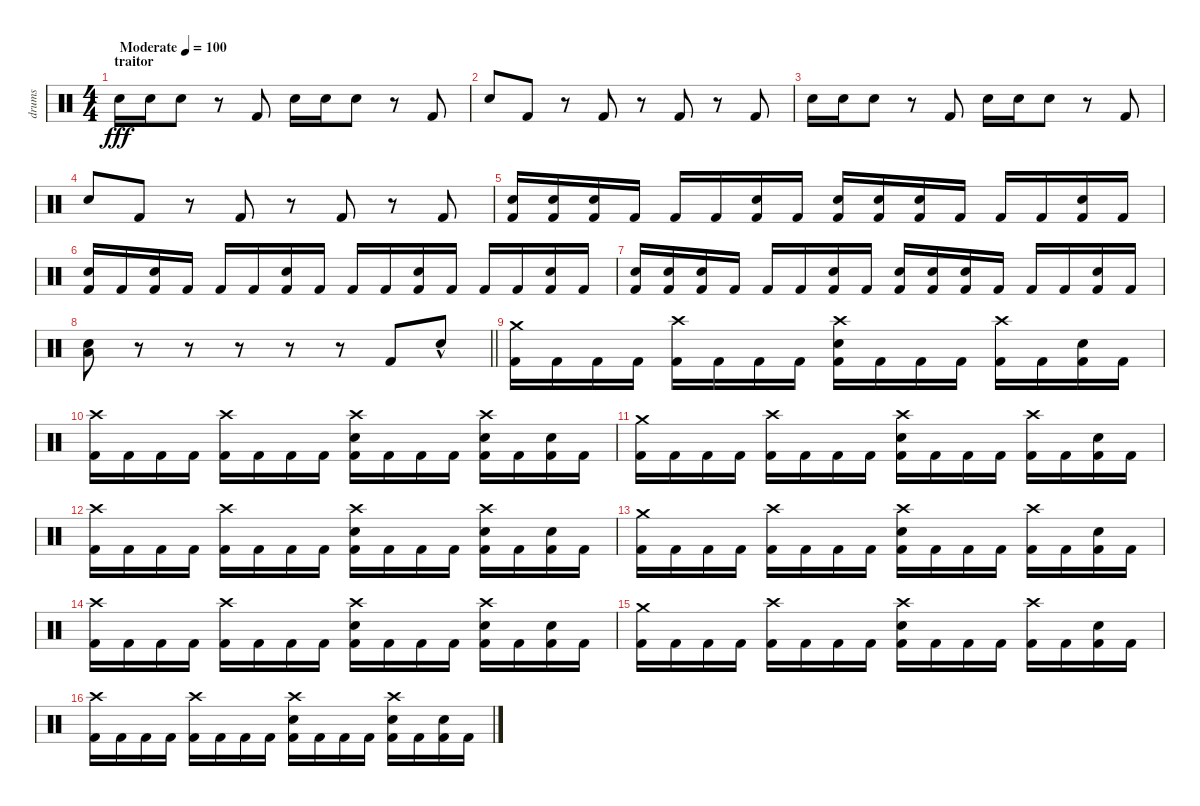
\track ("drums" "drums") {instrument percussion}
\staff {score}
\articulation defaults
\ts (4 4)
\section ("" "traitor")
\tempo (100 "Moderate")
\tempo 180
\tempo (100 "Moderate")
\clef neutral
\ks c "Electric Snare (hit)".16{dy fff} "Electric Snare (hit)".16 "Electric Snare (hit)".8
r.8 "Kick (hit) 2".8 "Electric Snare (hit)".16 "Electric Snare (hit)".16 "Electric Snare (hit)".8 r.8 "Kick (hit) 2".8 |
"Electric Snare (hit)".8 "Kick (hit) 2".8 r.8 "Kick (hit) 2".8 r.8 "Kick (hit) 2".8 r.8 "Kick (hit) 2".8 |
"Electric Snare (hit)".16 "Electric Snare (hit)".16 "Electric Snare (hit)".8 r.8 "Kick (hit) 2".8 "Electric Snare (hit)".16 "Electric Snare (hit)".16 "Electric Snare (hit)".8 r.8 "Kick (hit) 2".8 |
"Electric Snare (hit)".8 "Kick (hit) 2".8 r.8 "Kick (hit) 2".8 r.8 "Kick (hit) 2".8 r.8 "Kick (hit) 2".8 |
("Electric Snare (hit)" "Kick (hit) 2").16 ("Electric Snare (hit)" "Kick (hit) 2").16 ("Electric Snare (hit)" "Kick (hit) 2").16 "Kick (hit) 2".16 "Kick (hit) 2".16 "Kick (hit) 2".16 ("Electric Snare (hit)" "Kick (hit) 2").16 "Kick (hit) 2".16 ("Electric Snare (hit)" "Kick (hit) 2").16 ("Electric Snare (hit)" "Kick (hit) 2").16 ("Electric Snare (hit)" "Kick (hit) 2").16 "Kick (hit) 2".16 "Kick (hit) 2".16 "Kick (hit) 2".16 ("Electric Snare (hit)" "Kick (hit) 2").16 "Kick (hit) 2".16 |
("Electric Snare (hit)" "Kick (hit) 2").16 "Kick (hit) 2".16 ("Electric Snare (hit)" "Kick (hit) 2").16 "Kick (hit) 2".16 "Kick (hit) 2".16 "Kick (hit) 2".16 ("Electric Snare (hit)" "Kick (hit) 2").16 "Kick (hit) 2".16 "Kick (hit) 2".16 "Kick (hit) 2".16 ("Electric Snare (hit)" "Kick (hit) 2").16 "Kick (hit) 2".16 "Kick (hit) 2".16 "Kick (hit) 2".16 ("Electric Snare (hit)" "Kick (hit) 2").16 "Kick (hit) 2".16 |
("Electric Snare (hit)" "Kick (hit) 2").16 ("Electric Snare (hit)" "Kick (hit) 2").16 ("Electric Snare (hit)" "Kick (hit) 2").16 "Kick (hit) 2".16 "Kick (hit) 2".16 "Kick (hit) 2".16 ("Electric Snare (hit)" "Kick (hit) 2").16 "Kick (hit) 2".16 ("Electric Snare (hit)" "Kick (hit) 2").16 ("Electric Snare (hit)" "Kick (hit) 2").16 ("Electric Snare (hit)" "Kick (hit) 2").16 "Kick (hit) 2".16 "Kick (hit) 2".16 "Kick (hit) 2".16 ("Electric Snare (hit)" "Kick (hit) 2").16 "Kick (hit) 2".16 |
\barLineRight lightlight
("Low Floor Tom (hit)" "Electric Snare (hit)").8 r.8 r.8 r.8 r.8 r.8 "Kick (hit) 2".8 "Electric Snare (hit)"{hac}.8 |
("Crash medium (hit)" "Kick (hit) 2").16 "Kick (hit) 2".16 "Kick (hit) 2".16 "Kick (hit) 2".16 ("Crash high (hit)" "Kick (hit) 2").16 "Kick (hit) 2".16 "Kick (hit) 2".16 "Kick (hit) 2".16 ("Crash high (hit)" "Electric Snare (hit)" "Kick (hit) 2").16 "Kick (hit) 2".16 "Kick (hit) 2".16 "Kick (hit) 2".16 ("Crash high (hit)" "Kick (hit) 2").16 "Kick (hit) 2".16 ("Electric Snare (hit)" "Kick (hit) 2").16 "Kick (hit) 2".16 |
("Crash high (hit)" "Kick (hit) 2").16 "Kick (hit) 2".16 "Kick (hit) 2".16 "Kick (hit) 2".16 ("Crash high (hit)" "Kick (hit) 2").16 "Kick (hit) 2".16 "Kick (hit) 2".16 "Kick (hit) 2".16 ("Crash high (hit)" "Electric Snare (hit)" "Kick (hit) 2").16 "Kick (hit) 2".16 "Kick (hit) 2".16 "Kick (hit) 2".16 ("Crash high (hit)" "Electric Snare (hit)" "Kick (hit) 2").16 "Kick (hit) 2".16 ("Electric Snare (hit)" "Kick (hit) 2").16 "Kick (hit) 2".16 |
("Crash medium (hit)" "Kick (hit) 2").16 "Kick (hit) 2".16 "Kick (hit) 2".16 "Kick (hit) 2".16 ("Crash high (hit)" "Kick (hit) 2").16 "Kick (hit) 2".16 "Kick (hit) 2".16 "Kick (hit) 2".16 ("Crash high (hit)" "Electric Snare (hit)" "Kick (hit) 2").16 "Kick (hit) 2".16 "Kick (hit) 2".16 "Kick (hit) 2".16 ("Crash high (hit)" "Kick (hit) 2").16 "Kick (hit) 2".16 ("Electric Snare (hit)" "Kick (hit) 2").16 "Kick (hit) 2".16 |
("Crash high (hit)" "Kick (hit) 2").16 "Kick (hit) 2".16 "Kick (hit) 2".16 "Kick (hit) 2".16 ("Crash high (hit)" "Kick (hit) 2").16 "Kick (hit) 2".16 "Kick (hit) 2".16 "Kick (hit) 2".16 ("Crash high (hit)" "Electric Snare (hit)" "Kick (hit) 2").16 "Kick (hit) 2".16 "Kick (hit) 2".16 "Kick (hit) 2".16 ("Crash high (hit)" "Electric Snare (hit)" "Kick (hit) 2").16 "Kick (hit) 2".16 ("Electric Snare (hit)" "Kick (hit) 2").16 "Kick (hit) 2".16 |
("Crash medium (hit)" "Kick (hit) 2").16 "Kick (hit) 2".16 "Kick (hit) 2".16 "Kick (hit) 2".16 ("Crash high (hit)" "Kick (hit) 2").16 "Kick (hit) 2".16 "Kick (hit) 2".16 "Kick (hit) 2".16 ("Crash high (hit)" "Electric Snare (hit)" "Kick (hit) 2").16 "Kick (hit) 2".16 "Kick (hit) 2".16 "Kick (hit) 2".16 ("Crash high (hit)" "Kick (hit) 2").16 "Kick (hit) 2".16 ("Electric Snare (hit)" "Kick (hit) 2").16 "Kick (hit) 2".16 |
("Crash high (hit)" "Kick (hit) 2").16 "Kick (hit) 2".16 "Kick (hit) 2".16 "Kick (hit) 2".16 ("Crash high (hit)" "Kick (hit) 2").16 "Kick (hit) 2".16 "Kick (hit) 2".16 "Kick (hit) 2".16 ("Crash high (hit)" "Electric Snare (hit)" "Kick (hit) 2").16 "Kick (hit) 2".16 "Kick (hit) 2".16 "Kick (hit) 2".16 ("Crash high (hit)" "Electric Snare (hit)" "Kick (hit) 2").16 "Kick (hit) 2".16 ("Electric Snare (hit)" "Kick (hit) 2").16 "Kick (hit) 2".16 |
("Crash medium (hit)" "Kick (hit) 2").16 "Kick (hit) 2".16 "Kick (hit) 2".16 "Kick (hit) 2".16 ("Crash high (hit)" "Kick (hit) 2").16 "Kick (hit) 2".16 "Kick (hit) 2".16 "Kick (hit) 2".16 ("Crash high (hit)" "Electric Snare (hit)" "Kick (hit) 2").16 "Kick (hit) 2".16 "Kick (hit) 2".16 "Kick (hit) 2".16 ("Crash high (hit)" "Kick (hit) 2").16 "Kick (hit) 2".16 ("Electric Snare (hit)" "Kick (hit) 2").16 "Kick (hit) 2".16 |
("Crash high (hit)" "Kick (hit) 2").16 "Kick (hit) 2".16 "Kick (hit) 2".16 "Kick (hit) 2".16 ("Crash high (hit)" "Kick (hit) 2").16 "Kick (hit) 2".16 "Kick (hit) 2".16 "Kick (hit) 2".16 ("Crash high (hit)" "Electric Snare (hit)" "Kick (hit) 2").16 "Kick (hit) 2".16 "Kick (hit) 2".16 "Kick (hit) 2".16 ("Crash high (hit)" "Electric Snare (hit)" "Kick (hit) 2").16 "Kick (hit) 2".16 ("Electric Snare (hit)" "Kick (hit) 2").16 "Kick (hit) 2".16
